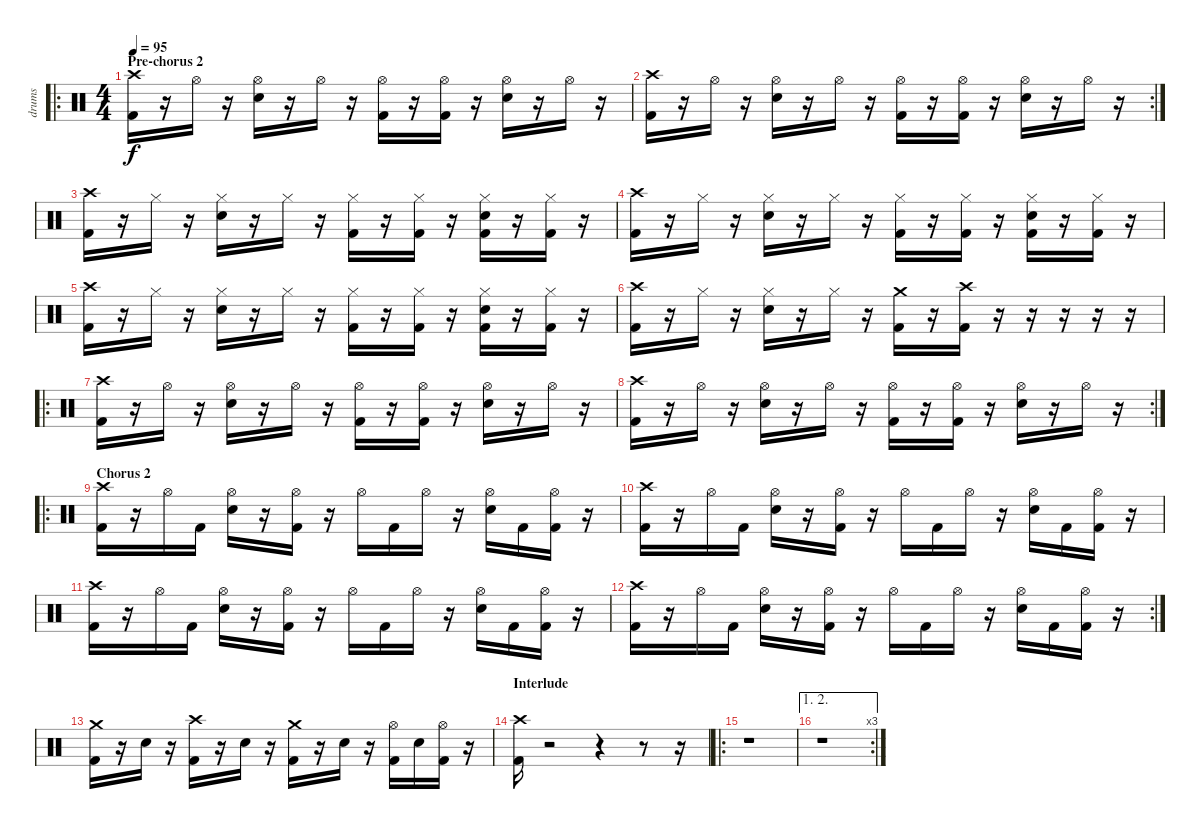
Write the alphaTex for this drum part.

\track ("drums" "drums") {instrument percussion}
\staff {score}
\articulation defaults
\ro
\ts (4 4)
\section ("" "Pre-chorus 2")
\tempo 95
\clef neutral
\ks c
("Kick (hit) 2" "Crash high (hit)").16{dy f} r.16 "Hi-Hat (open)".16 r.16 ("Electric Snare (hit)" "Hi-Hat (open)").16 r.16 "Hi-Hat (open)".16 r.16 ("Kick (hit) 2" "Hi-Hat (open)").16 r.16 ("Kick (hit) 2" "Hi-Hat (open)").16 r.16 ("Electric Snare (hit)" "Hi-Hat (open)").16 r.16 "Hi-Hat (open)".16 r.16 |
\rc 2
("Kick (hit) 2" "Crash high (hit)").16 r.16 "Hi-Hat (open)".16 r.16 ("Electric Snare (hit)" "Hi-Hat (open)").16 r.16 "Hi-Hat (open)".16 r.16 ("Kick (hit) 2" "Hi-Hat (open)").16 r.16 ("Kick (hit) 2" "Hi-Hat (open)").16 r.16 ("Electric Snare (hit)" "Hi-Hat (open)").16 r.16 "Hi-Hat (open)".16 r.16 |
("Kick (hit) 2" "Crash high (hit)").16 r.16 "Hi-Hat (closed)".16 r.16 ("Electric Snare (hit)" "Hi-Hat (closed)").16 r.16 "Hi-Hat (closed)".16 r.16 ("Kick (hit) 2" "Hi-Hat (closed)").16 r.16 ("Kick (hit) 2" "Hi-Hat (closed)").16 r.16 ("Kick (hit) 2" "Electric Snare (hit)" "Hi-Hat (closed)").16 r.16 ("Kick (hit) 2" "Hi-Hat (closed)").16 r.16 |
("Kick (hit) 2" "Crash high (hit)").16 r.16 "Hi-Hat (closed)".16 r.16 ("Electric Snare (hit)" "Hi-Hat (closed)").16 r.16 "Hi-Hat (closed)".16 r.16 ("Kick (hit) 2" "Hi-Hat (closed)").16 r.16 ("Kick (hit) 2" "Hi-Hat (closed)").16 r.16 ("Kick (hit) 2" "Electric Snare (hit)" "Hi-Hat (closed)").16 r.16 ("Kick (hit) 2" "Hi-Hat (closed)").16 r.16 |
("Kick (hit) 2" "Crash high (hit)").16 r.16 "Hi-Hat (closed)".16 r.16 ("Electric Snare (hit)" "Hi-Hat (closed)").16 r.16 "Hi-Hat (closed)".16 r.16 ("Kick (hit) 2" "Hi-Hat (closed)").16 r.16 ("Kick (hit) 2" "Hi-Hat (closed)").16 r.16 ("Kick (hit) 2" "Electric Snare (hit)" "Hi-Hat (closed)").16 r.16 ("Kick (hit) 2" "Hi-Hat (closed)").16 r.16 |
("Kick (hit) 2" "Crash high (hit)").16 r.16 "Hi-Hat (closed)".16 r.16 ("Electric Snare (hit)" "Hi-Hat (closed)").16 r.16 "Hi-Hat (closed)".16 r.16 ("Kick (hit) 2" "Crash medium (hit)").16 r.16 ("Kick (hit) 2" "Crash high (hit)").16 r.16 r.16 r.16 r.16 r.16 |
\ro
("Kick (hit) 2" "Crash high (hit)").16 r.16 "Hi-Hat (open)".16 r.16 ("Electric Snare (hit)" "Hi-Hat (open)").16 r.16 "Hi-Hat (open)".16 r.16 ("Kick (hit) 2" "Hi-Hat (open)").16 r.16 ("Kick (hit) 2" "Hi-Hat (open)").16 r.16 ("Electric Snare (hit)" "Hi-Hat (open)").16 r.16 "Hi-Hat (open)".16 r.16 |
\rc 2
("Kick (hit) 2" "Crash high (hit)").16 r.16 "Hi-Hat (open)".16 r.16 ("Electric Snare (hit)" "Hi-Hat (open)").16 r.16 "Hi-Hat (open)".16 r.16 ("Kick (hit) 2" "Hi-Hat (open)").16 r.16 ("Kick (hit) 2" "Hi-Hat (open)").16 r.16 ("Electric Snare (hit)" "Hi-Hat (open)").16 r.16 "Hi-Hat (open)".16 r.16 |
\ro
\section ("" "Chorus 2")
("Kick (hit) 2" "Crash high (hit)").16 r.16 "Hi-Hat (open)".16 "Kick (hit) 2".16 ("Electric Snare (hit)" "Hi-Hat (open)").16 r.16 ("Kick (hit) 2" "Hi-Hat (open)").16 r.16 "Hi-Hat (open)".16 "Kick (hit) 2".16 "Hi-Hat (open)".16 r.16 ("Electric Snare (hit)" "Hi-Hat (open)").16 "Kick (hit) 2".16 ("Kick (hit) 2" "Hi-Hat (open)").16 r.16 |
("Kick (hit) 2" "Crash high (hit)").16 r.16 "Hi-Hat (open)".16 "Kick (hit) 2".16 ("Electric Snare (hit)" "Hi-Hat (open)").16 r.16 ("Kick (hit) 2" "Hi-Hat (open)").16 r.16 "Hi-Hat (open)".16 "Kick (hit) 2".16 "Hi-Hat (open)".16 r.16 ("Electric Snare (hit)" "Hi-Hat (open)").16 "Kick (hit) 2".16 ("Kick (hit) 2" "Hi-Hat (open)").16 r.16 |
("Kick (hit) 2" "Crash high (hit)").16 r.16 "Hi-Hat (open)".16 "Kick (hit) 2".16 ("Electric Snare (hit)" "Hi-Hat (open)").16 r.16 ("Kick (hit) 2" "Hi-Hat (open)").16 r.16 "Hi-Hat (open)".16 "Kick (hit) 2".16 "Hi-Hat (open)".16 r.16 ("Electric Snare (hit)" "Hi-Hat (open)").16 "Kick (hit) 2".16 ("Kick (hit) 2" "Hi-Hat (open)").16 r.16 |
\rc 2
("Kick (hit) 2" "Crash high (hit)").16 r.16 "Hi-Hat (open)".16 "Kick (hit) 2".16 ("Electric Snare (hit)" "Hi-Hat (open)").16 r.16 ("Kick (hit) 2" "Hi-Hat (open)").16 r.16 "Hi-Hat (open)".16 "Kick (hit) 2".16 "Hi-Hat (open)".16 r.16 ("Electric Snare (hit)" "Hi-Hat (open)").16 "Kick (hit) 2".16 ("Kick (hit) 2" "Hi-Hat (open)").16 r.16 |
("Kick (hit) 2" "Crash medium (hit)").16 r.16 "Electric Snare (hit)".16 r.16 ("Kick (hit) 2" "Crash high (hit)").16 r.16 "Electric Snare (hit)".16 r.16 ("Kick (hit) 2" "Crash medium (hit)").16 r.16 "Electric Snare (hit)".16 r.16 ("Kick (hit) 2" "Hi-Hat (open)").16 "Electric Snare (hit)".16 ("Kick (hit) 2" "Hi-Hat (open)").16 r.16 |
\section ("" "Interlude")
("Kick (hit) 2" "Crash high (hit)").16 r.2 r.4 r.8 r.16 |
\ro
r.1 |
\ae (1 2)
\rc 3
r.1
